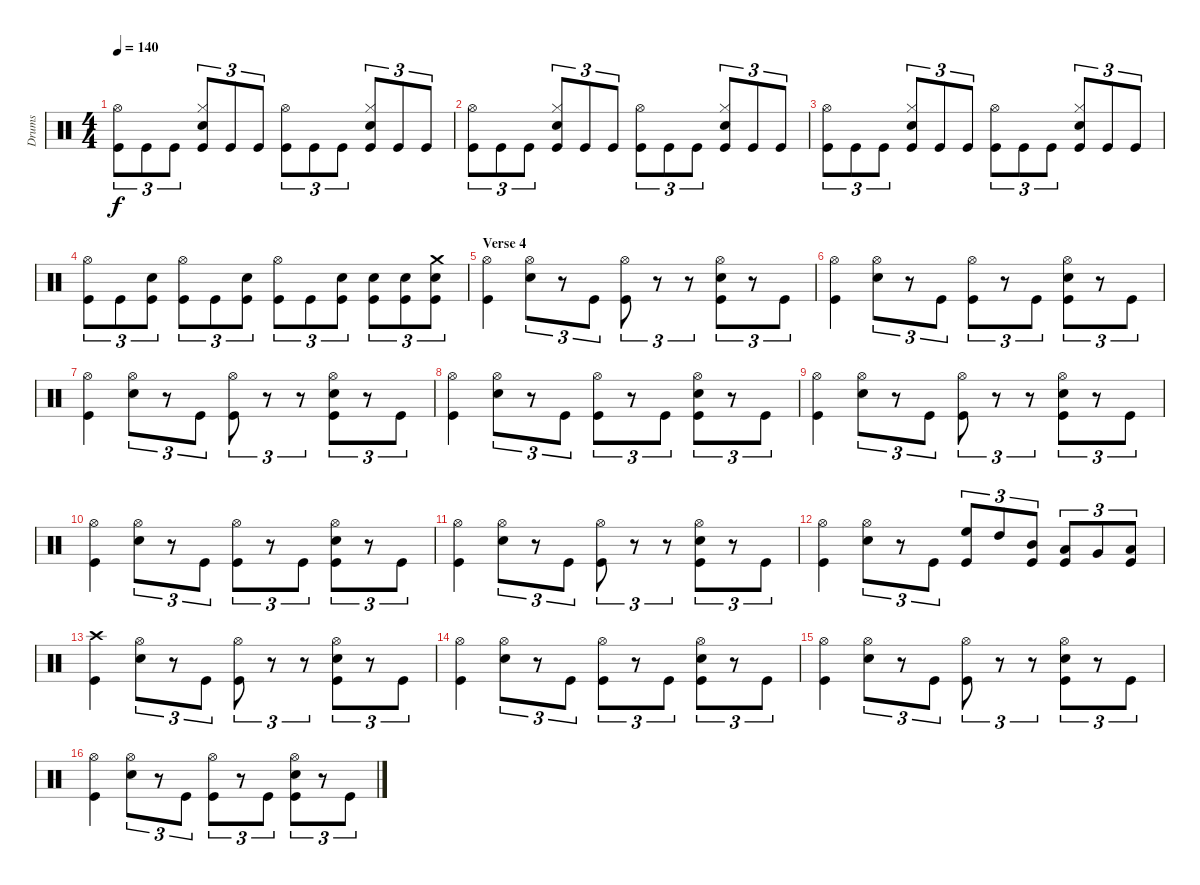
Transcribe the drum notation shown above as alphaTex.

\track ("Drums" "Drums") {instrument percussion}
\staff {score}
\articulation defaults
\ts (4 4)
\tempo 140
\clef neutral
\ks c
("Hi-Hat (open)" "Kick (hit)").8{tu (3 2) dy f} "Kick (hit)".8{tu (3 2)} "Kick (hit)".8{tu (3 2)} ("Hi-Hat (closed)" "Electric Snare (hit)" "Kick (hit)").8{tu (3 2)} "Kick (hit)".8{tu (3 2)} "Kick (hit)".8{tu (3 2)} ("Hi-Hat (open)" "Kick (hit)").8{tu (3 2)} "Kick (hit)".8{tu (3 2)} "Kick (hit)".8{tu (3 2)} ("Hi-Hat (closed)" "Electric Snare (hit)" "Kick (hit)").8{tu (3 2)} "Kick (hit)".8{tu (3 2)} "Kick (hit)".8{tu (3 2)} |
("Hi-Hat (open)" "Kick (hit)").8{tu (3 2)} "Kick (hit)".8{tu (3 2)} "Kick (hit)".8{tu (3 2)} ("Hi-Hat (closed)" "Electric Snare (hit)" "Kick (hit)").8{tu (3 2)} "Kick (hit)".8{tu (3 2)} "Kick (hit)".8{tu (3 2)} ("Hi-Hat (open)" "Kick (hit)").8{tu (3 2)} "Kick (hit)".8{tu (3 2)} "Kick (hit)".8{tu (3 2)} ("Hi-Hat (closed)" "Electric Snare (hit)" "Kick (hit)").8{tu (3 2)} "Kick (hit)".8{tu (3 2)} "Kick (hit)".8{tu (3 2)} |
("Hi-Hat (open)" "Kick (hit)").8{tu (3 2)} "Kick (hit)".8{tu (3 2)} "Kick (hit)".8{tu (3 2)} ("Hi-Hat (closed)" "Electric Snare (hit)" "Kick (hit)").8{tu (3 2)} "Kick (hit)".8{tu (3 2)} "Kick (hit)".8{tu (3 2)} ("Hi-Hat (open)" "Kick (hit)").8{tu (3 2)} "Kick (hit)".8{tu (3 2)} "Kick (hit)".8{tu (3 2)} ("Hi-Hat (closed)" "Electric Snare (hit)" "Kick (hit)").8{tu (3 2)} "Kick (hit)".8{tu (3 2)} "Kick (hit)".8{tu (3 2)} |
("Hi-Hat (open)" "Kick (hit)").8{tu (3 2)} "Kick (hit)".8{tu (3 2)} ("Electric Snare (hit)" "Kick (hit)").8{tu (3 2)} ("Hi-Hat (open)" "Kick (hit)").8{tu (3 2)} "Kick (hit)".8{tu (3 2)} ("Electric Snare (hit)" "Kick (hit)").8{tu (3 2)} ("Hi-Hat (open)" "Kick (hit)").8{tu (3 2)} "Kick (hit)".8{tu (3 2)} ("Electric Snare (hit)" "Kick (hit)").8{tu (3 2)} ("Electric Snare (hit)" "Kick (hit)").8{tu (3 2)} ("Electric Snare (hit)" "Kick (hit)").8{tu (3 2)} ("Crash medium (hit)" "Electric Snare (hit)" "Kick (hit)").8{tu (3 2)} |
\section ("" "Verse 4")
("Hi-Hat (open)" "Kick (hit)").4 ("Hi-Hat (open)" "Electric Snare (hit)").8{tu (3 2)} r.8{tu (3 2)} "Kick (hit)".8{tu (3 2)} ("Hi-Hat (open)" "Kick (hit)").8{tu (3 2)} r.8{tu (3 2)} r.8{tu (3 2)} ("Hi-Hat (open)" "Kick (hit)" "Electric Snare (hit)").8{tu (3 2)} r.8{tu (3 2)} "Kick (hit)".8{tu (3 2)} |
("Hi-Hat (open)" "Kick (hit)").4 ("Hi-Hat (open)" "Electric Snare (hit)").8{tu (3 2)} r.8{tu (3 2)} "Kick (hit)".8{tu (3 2)} ("Hi-Hat (open)" "Kick (hit)").8{tu (3 2)} r.8{tu (3 2)} "Kick (hit)".8{tu (3 2)} ("Hi-Hat (open)" "Kick (hit)" "Electric Snare (hit)").8{tu (3 2)} r.8{tu (3 2)} "Kick (hit)".8{tu (3 2)} |
("Hi-Hat (open)" "Kick (hit)").4 ("Hi-Hat (open)" "Electric Snare (hit)").8{tu (3 2)} r.8{tu (3 2)} "Kick (hit)".8{tu (3 2)} ("Hi-Hat (open)" "Kick (hit)").8{tu (3 2)} r.8{tu (3 2)} r.8{tu (3 2)} ("Hi-Hat (open)" "Kick (hit)" "Electric Snare (hit)").8{tu (3 2)} r.8{tu (3 2)} "Kick (hit)".8{tu (3 2)} |
("Hi-Hat (open)" "Kick (hit)").4 ("Hi-Hat (open)" "Electric Snare (hit)").8{tu (3 2)} r.8{tu (3 2)} "Kick (hit)".8{tu (3 2)} ("Hi-Hat (open)" "Kick (hit)").8{tu (3 2)} r.8{tu (3 2)} "Kick (hit)".8{tu (3 2)} ("Hi-Hat (open)" "Kick (hit)" "Electric Snare (hit)").8{tu (3 2)} r.8{tu (3 2)} "Kick (hit)".8{tu (3 2)} |
("Hi-Hat (open)" "Kick (hit)").4 ("Hi-Hat (open)" "Electric Snare (hit)").8{tu (3 2)} r.8{tu (3 2)} "Kick (hit)".8{tu (3 2)} ("Hi-Hat (open)" "Kick (hit)").8{tu (3 2)} r.8{tu (3 2)} r.8{tu (3 2)} ("Hi-Hat (open)" "Kick (hit)" "Electric Snare (hit)").8{tu (3 2)} r.8{tu (3 2)} "Kick (hit)".8{tu (3 2)} |
("Hi-Hat (open)" "Kick (hit)").4 ("Hi-Hat (open)" "Electric Snare (hit)").8{tu (3 2)} r.8{tu (3 2)} "Kick (hit)".8{tu (3 2)} ("Hi-Hat (open)" "Kick (hit)").8{tu (3 2)} r.8{tu (3 2)} "Kick (hit)".8{tu (3 2)} ("Hi-Hat (open)" "Kick (hit)" "Electric Snare (hit)").8{tu (3 2)} r.8{tu (3 2)} "Kick (hit)".8{tu (3 2)} |
("Hi-Hat (open)" "Kick (hit)").4 ("Hi-Hat (open)" "Electric Snare (hit)").8{tu (3 2)} r.8{tu (3 2)} "Kick (hit)".8{tu (3 2)} ("Hi-Hat (open)" "Kick (hit)").8{tu (3 2)} r.8{tu (3 2)} r.8{tu (3 2)} ("Hi-Hat (open)" "Kick (hit)" "Electric Snare (hit)").8{tu (3 2)} r.8{tu (3 2)} "Kick (hit)".8{tu (3 2)} |
("Hi-Hat (open)" "Kick (hit)").4 ("Hi-Hat (open)" "Electric Snare (hit)").8{tu (3 2)} r.8{tu (3 2)} "Kick (hit)".8{tu (3 2)} ("Kick (hit)" "High Floor Tom (hit)").8{tu (3 2)} "High Tom (hit)".8{tu (3 2)} ("Kick (hit)" "Mid Tom (hit)").8{tu (3 2)} ("Kick (hit)" "Low Tom (hit)").8{tu (3 2)} "Very Low Tom (hit)".8{tu (3 2)} ("Kick (hit)" "Low Floor Tom (hit)").8{tu (3 2)} |
("Crash high (hit)" "Kick (hit)").4 ("Hi-Hat (open)" "Electric Snare (hit)").8{tu (3 2)} r.8{tu (3 2)} "Kick (hit)".8{tu (3 2)} ("Hi-Hat (open)" "Kick (hit)").8{tu (3 2)} r.8{tu (3 2)} r.8{tu (3 2)} ("Hi-Hat (open)" "Kick (hit)" "Electric Snare (hit)").8{tu (3 2)} r.8{tu (3 2)} "Kick (hit)".8{tu (3 2)} |
("Hi-Hat (open)" "Kick (hit)").4 ("Hi-Hat (open)" "Electric Snare (hit)").8{tu (3 2)} r.8{tu (3 2)} "Kick (hit)".8{tu (3 2)} ("Hi-Hat (open)" "Kick (hit)").8{tu (3 2)} r.8{tu (3 2)} "Kick (hit)".8{tu (3 2)} ("Hi-Hat (open)" "Kick (hit)" "Electric Snare (hit)").8{tu (3 2)} r.8{tu (3 2)} "Kick (hit)".8{tu (3 2)} |
("Hi-Hat (open)" "Kick (hit)").4 ("Hi-Hat (open)" "Electric Snare (hit)").8{tu (3 2)} r.8{tu (3 2)} "Kick (hit)".8{tu (3 2)} ("Hi-Hat (open)" "Kick (hit)").8{tu (3 2)} r.8{tu (3 2)} r.8{tu (3 2)} ("Hi-Hat (open)" "Kick (hit)" "Electric Snare (hit)").8{tu (3 2)} r.8{tu (3 2)} "Kick (hit)".8{tu (3 2)} |
("Hi-Hat (open)" "Kick (hit)").4 ("Hi-Hat (open)" "Electric Snare (hit)").8{tu (3 2)} r.8{tu (3 2)} "Kick (hit)".8{tu (3 2)} ("Hi-Hat (open)" "Kick (hit)").8{tu (3 2)} r.8{tu (3 2)} "Kick (hit)".8{tu (3 2)} ("Hi-Hat (open)" "Kick (hit)" "Electric Snare (hit)").8{tu (3 2)} r.8{tu (3 2)} "Kick (hit)".8{tu (3 2)}
